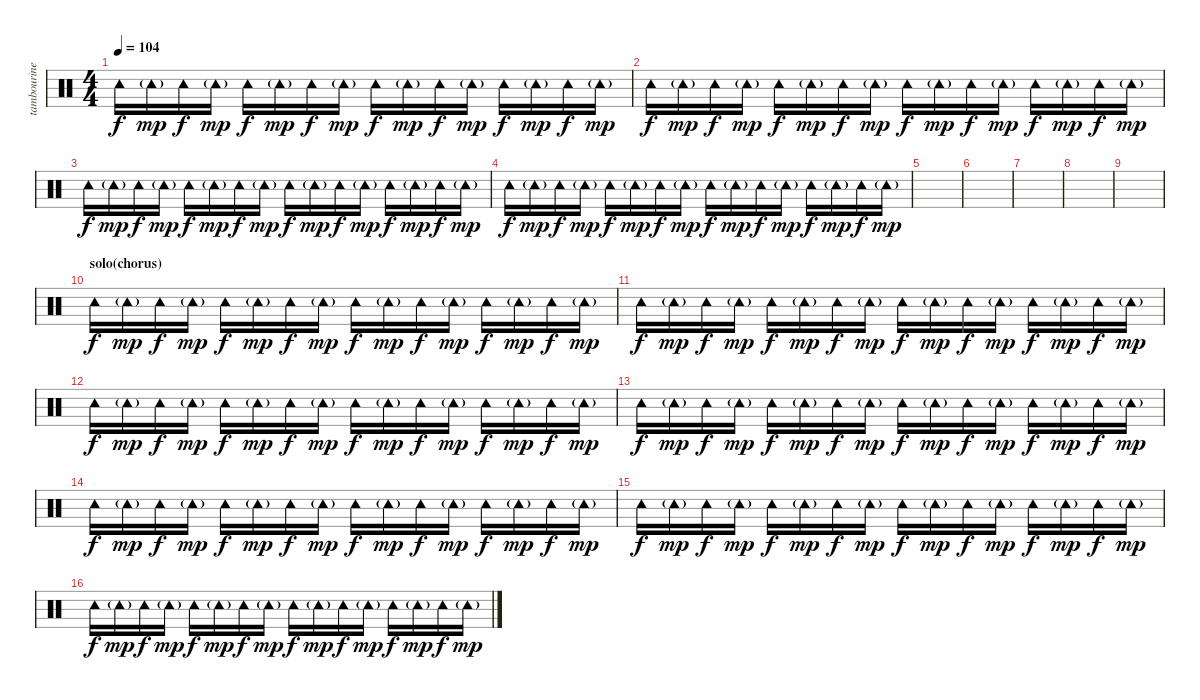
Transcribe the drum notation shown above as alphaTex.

\track ("tambourine" "tambourine") {instrument percussion}
\staff {score}
\articulation defaults
\ts (4 4)
\tempo 104
\clef neutral
\ks c "Tambourine (hit)".16{dy f} "Tambourine (hit)"{g}.16{dy mp} "Tambourine (hit)".16{dy f} "Tambourine (hit)"{g}.16{dy mp} "Tambourine (hit)".16{dy f} "Tambourine (hit)"{g}.16{dy mp} "Tambourine (hit)".16{dy f} "Tambourine (hit)"{g}.16{dy mp} "Tambourine (hit)".16{dy f} "Tambourine (hit)"{g}.16{dy mp} "Tambourine (hit)".16{dy f} "Tambourine (hit)"{g}.16{dy mp} "Tambourine (hit)".16{dy f} "Tambourine (hit)"{g}.16{dy mp} "Tambourine (hit)".16{dy f} "Tambourine (hit)"{g}.16{dy mp}
|
"Tambourine (hit)".16{dy f} "Tambourine (hit)"{g}.16{dy mp} "Tambourine (hit)".16{dy f} "Tambourine (hit)"{g}.16{dy mp} "Tambourine (hit)".16{dy f} "Tambourine (hit)"{g}.16{dy mp} "Tambourine (hit)".16{dy f} "Tambourine (hit)"{g}.16{dy mp} "Tambourine (hit)".16{dy f} "Tambourine (hit)"{g}.16{dy mp} "Tambourine (hit)".16{dy f} "Tambourine (hit)"{g}.16{dy mp} "Tambourine (hit)".16{dy f} "Tambourine (hit)"{g}.16{dy mp} "Tambourine (hit)".16{dy f} "Tambourine (hit)"{g}.16{dy mp} |
"Tambourine (hit)".16{dy f} "Tambourine (hit)"{g}.16{dy mp} "Tambourine (hit)".16{dy f} "Tambourine (hit)"{g}.16{dy mp} "Tambourine (hit)".16{dy f} "Tambourine (hit)"{g}.16{dy mp} "Tambourine (hit)".16{dy f} "Tambourine (hit)"{g}.16{dy mp} "Tambourine (hit)".16{dy f} "Tambourine (hit)"{g}.16{dy mp} "Tambourine (hit)".16{dy f} "Tambourine (hit)"{g}.16{dy mp} "Tambourine (hit)".16{dy f} "Tambourine (hit)"{g}.16{dy mp} "Tambourine (hit)".16{dy f} "Tambourine (hit)"{g}.16{dy mp} |
"Tambourine (hit)".16{dy f} "Tambourine (hit)"{g}.16{dy mp} "Tambourine (hit)".16{dy f} "Tambourine (hit)"{g}.16{dy mp} "Tambourine (hit)".16{dy f} "Tambourine (hit)"{g}.16{dy mp} "Tambourine (hit)".16{dy f} "Tambourine (hit)"{g}.16{dy mp} "Tambourine (hit)".16{dy f} "Tambourine (hit)"{g}.16{dy mp} "Tambourine (hit)".16{dy f} "Tambourine (hit)"{g}.16{dy mp} "Tambourine (hit)".16{dy f} "Tambourine (hit)"{g}.16{dy mp} "Tambourine (hit)".16{dy f} "Tambourine (hit)"{g}.16{dy mp} |
|
|
|
|
|
\section ("" "solo(chorus)")
"Tambourine (hit)".16{dy f} "Tambourine (hit)"{g}.16{dy mp} "Tambourine (hit)".16{dy f} "Tambourine (hit)"{g}.16{dy mp} "Tambourine (hit)".16{dy f} "Tambourine (hit)"{g}.16{dy mp} "Tambourine (hit)".16{dy f} "Tambourine (hit)"{g}.16{dy mp} "Tambourine (hit)".16{dy f} "Tambourine (hit)"{g}.16{dy mp} "Tambourine (hit)".16{dy f} "Tambourine (hit)"{g}.16{dy mp} "Tambourine (hit)".16{dy f} "Tambourine (hit)"{g}.16{dy mp} "Tambourine (hit)".16{dy f} "Tambourine (hit)"{g}.16{dy mp} |
"Tambourine (hit)".16{dy f} "Tambourine (hit)"{g}.16{dy mp} "Tambourine (hit)".16{dy f} "Tambourine (hit)"{g}.16{dy mp} "Tambourine (hit)".16{dy f} "Tambourine (hit)"{g}.16{dy mp} "Tambourine (hit)".16{dy f} "Tambourine (hit)"{g}.16{dy mp} "Tambourine (hit)".16{dy f} "Tambourine (hit)"{g}.16{dy mp} "Tambourine (hit)".16{dy f} "Tambourine (hit)"{g}.16{dy mp} "Tambourine (hit)".16{dy f} "Tambourine (hit)"{g}.16{dy mp} "Tambourine (hit)".16{dy f} "Tambourine (hit)"{g}.16{dy mp} |
"Tambourine (hit)".16{dy f} "Tambourine (hit)"{g}.16{dy mp} "Tambourine (hit)".16{dy f} "Tambourine (hit)"{g}.16{dy mp} "Tambourine (hit)".16{dy f} "Tambourine (hit)"{g}.16{dy mp} "Tambourine (hit)".16{dy f} "Tambourine (hit)"{g}.16{dy mp} "Tambourine (hit)".16{dy f} "Tambourine (hit)"{g}.16{dy mp} "Tambourine (hit)".16{dy f} "Tambourine (hit)"{g}.16{dy mp} "Tambourine (hit)".16{dy f} "Tambourine (hit)"{g}.16{dy mp} "Tambourine (hit)".16{dy f} "Tambourine (hit)"{g}.16{dy mp} |
"Tambourine (hit)".16{dy f} "Tambourine (hit)"{g}.16{dy mp} "Tambourine (hit)".16{dy f} "Tambourine (hit)"{g}.16{dy mp} "Tambourine (hit)".16{dy f} "Tambourine (hit)"{g}.16{dy mp} "Tambourine (hit)".16{dy f} "Tambourine (hit)"{g}.16{dy mp} "Tambourine (hit)".16{dy f} "Tambourine (hit)"{g}.16{dy mp} "Tambourine (hit)".16{dy f} "Tambourine (hit)"{g}.16{dy mp} "Tambourine (hit)".16{dy f} "Tambourine (hit)"{g}.16{dy mp} "Tambourine (hit)".16{dy f} "Tambourine (hit)"{g}.16{dy mp} |
"Tambourine (hit)".16{dy f} "Tambourine (hit)"{g}.16{dy mp} "Tambourine (hit)".16{dy f} "Tambourine (hit)"{g}.16{dy mp} "Tambourine (hit)".16{dy f} "Tambourine (hit)"{g}.16{dy mp} "Tambourine (hit)".16{dy f} "Tambourine (hit)"{g}.16{dy mp} "Tambourine (hit)".16{dy f} "Tambourine (hit)"{g}.16{dy mp} "Tambourine (hit)".16{dy f} "Tambourine (hit)"{g}.16{dy mp} "Tambourine (hit)".16{dy f} "Tambourine (hit)"{g}.16{dy mp} "Tambourine (hit)".16{dy f} "Tambourine (hit)"{g}.16{dy mp} |
"Tambourine (hit)".16{dy f} "Tambourine (hit)"{g}.16{dy mp} "Tambourine (hit)".16{dy f} "Tambourine (hit)"{g}.16{dy mp} "Tambourine (hit)".16{dy f} "Tambourine (hit)"{g}.16{dy mp} "Tambourine (hit)".16{dy f} "Tambourine (hit)"{g}.16{dy mp} "Tambourine (hit)".16{dy f} "Tambourine (hit)"{g}.16{dy mp} "Tambourine (hit)".16{dy f} "Tambourine (hit)"{g}.16{dy mp} "Tambourine (hit)".16{dy f} "Tambourine (hit)"{g}.16{dy mp} "Tambourine (hit)".16{dy f} "Tambourine (hit)"{g}.16{dy mp} |
"Tambourine (hit)".16{dy f} "Tambourine (hit)"{g}.16{dy mp} "Tambourine (hit)".16{dy f} "Tambourine (hit)"{g}.16{dy mp} "Tambourine (hit)".16{dy f} "Tambourine (hit)"{g}.16{dy mp} "Tambourine (hit)".16{dy f} "Tambourine (hit)"{g}.16{dy mp} "Tambourine (hit)".16{dy f} "Tambourine (hit)"{g}.16{dy mp} "Tambourine (hit)".16{dy f} "Tambourine (hit)"{g}.16{dy mp} "Tambourine (hit)".16{dy f} "Tambourine (hit)"{g}.16{dy mp} "Tambourine (hit)".16{dy f} "Tambourine (hit)"{g}.16{dy mp}
